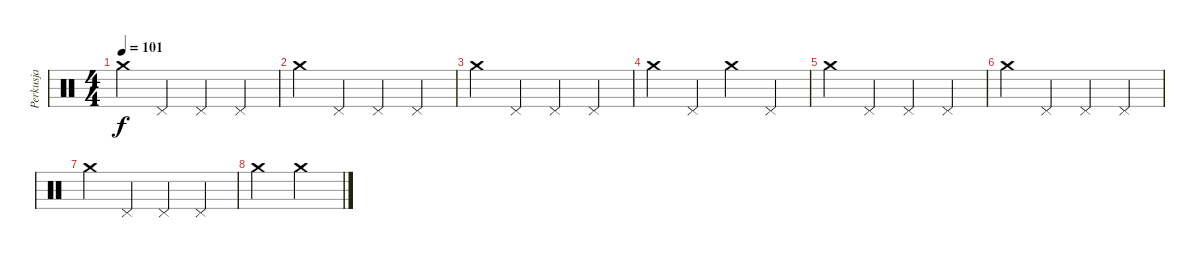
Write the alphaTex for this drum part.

\track ("Perkusja" "Perkusja") {instrument percussion}
\staff {score}
\articulation defaults
\ts (4 4)
\tempo 101
\clef neutral
\ks c "Crash medium (hit)".4{dy f} "Pedal Hi-Hat (hit)".4 "Pedal Hi-Hat (hit)".4 "Pedal Hi-Hat (hit)".4
|
"Crash medium (hit)".4 "Pedal Hi-Hat (hit)".4 "Pedal Hi-Hat (hit)".4 "Pedal Hi-Hat (hit)".4 |
"Crash medium (hit)".4 "Pedal Hi-Hat (hit)".4 "Pedal Hi-Hat (hit)".4 "Pedal Hi-Hat (hit)".4 |
"Crash medium (hit)".4 "Pedal Hi-Hat (hit)".4 "Crash medium (hit)".4 "Pedal Hi-Hat (hit)".4 |
"Crash medium (hit)".4 "Pedal Hi-Hat (hit)".4 "Pedal Hi-Hat (hit)".4 "Pedal Hi-Hat (hit)".4 |
"Crash medium (hit)".4 "Pedal Hi-Hat (hit)".4 "Pedal Hi-Hat (hit)".4 "Pedal Hi-Hat (hit)".4 |
"Crash medium (hit)".4 "Pedal Hi-Hat (hit)".4 "Pedal Hi-Hat (hit)".4 "Pedal Hi-Hat (hit)".4 |
"Crash medium (hit)".2 "Crash medium (hit)".2
